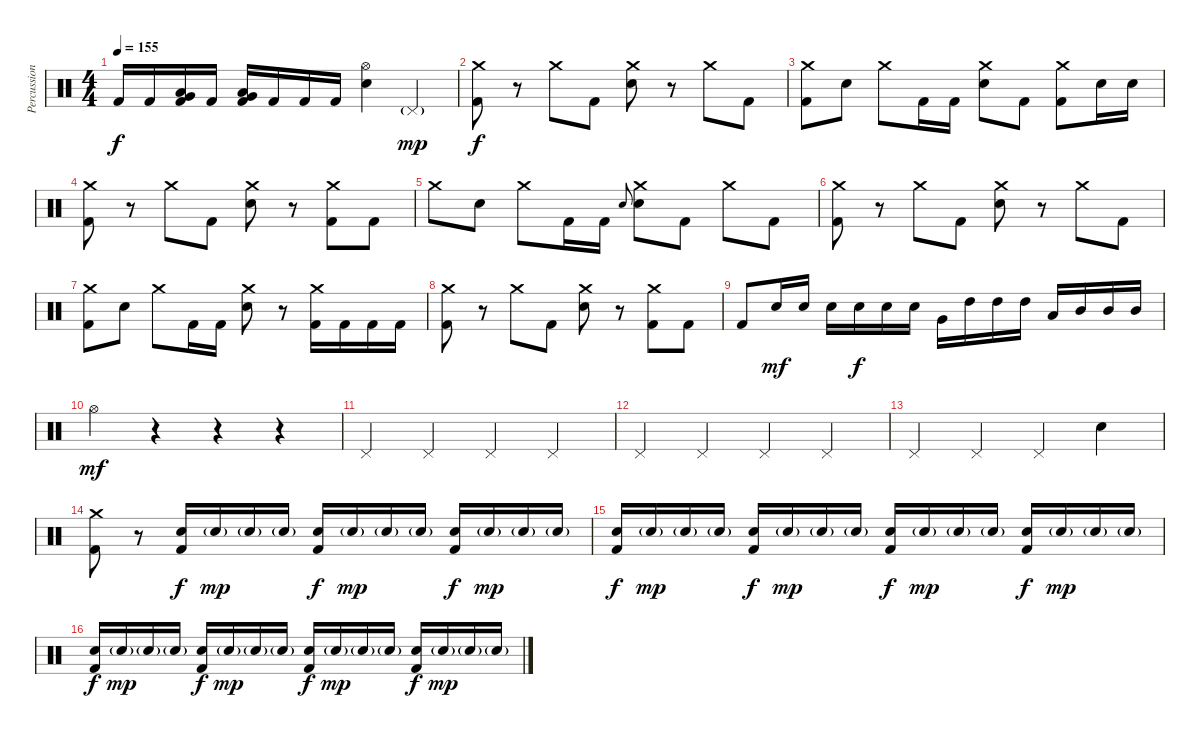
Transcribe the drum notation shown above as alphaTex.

\track ("Percussion" "Percussion") {instrument percussion}
\staff {score}
\articulation defaults
\ts (4 4)
\tempo 155
\clef neutral
\ks c "Kick (hit) 2".16{dy f} "Kick (hit) 2".16
("Very Low Tom (hit)" "Low Tom (hit)" "Kick (hit) 2").16 "Kick (hit) 2".16 ("Very Low Tom (hit)" "Low Tom (hit)" "Kick (hit) 2").16 "Kick (hit) 2".16 "Kick (hit) 2".16 "Kick (hit) 2".16 ("Hi-Hat (open)" "Snare (hit) 2").4 "Pedal Hi-Hat (hit)"{g}.4{dy mp} |
("Crash medium (hit)" "Kick (hit) 2").8{dy f} r.8 "Crash medium (hit)".8 "Kick (hit) 2".8 ("Crash medium (hit)" "Snare (hit) 2").8 r.8 "Crash medium (hit)".8 "Kick (hit) 2".8 |
("Crash medium (hit)" "Kick (hit) 2").8 "Snare (hit) 2".8 "Crash medium (hit)".8 "Kick (hit) 2".16 "Kick (hit) 2".16 ("Crash medium (hit)" "Snare (hit) 2").8 "Kick (hit) 2".8 ("Crash medium (hit)" "Kick (hit) 2").8 "Snare (hit) 2".16 "Snare (hit) 2".16 |
("Crash medium (hit)" "Kick (hit) 2").8 r.8 "Crash medium (hit)".8 "Kick (hit) 2".8 ("Crash medium (hit)" "Snare (hit) 2").8 r.8 ("Crash medium (hit)" "Kick (hit) 2").8 "Kick (hit) 2".8 |
"Crash medium (hit)".8 "Snare (hit) 2".8 "Crash medium (hit)".8 "Kick (hit) 2".16 "Kick (hit) 2".16 "Snare (hit) 2"{h}.8{gr onbeat} ("Crash medium (hit)" "Snare (hit) 2").8 "Kick (hit) 2".8 "Crash medium (hit)".8 "Kick (hit) 2".8 |
("Crash medium (hit)" "Kick (hit) 2").8 r.8 "Crash medium (hit)".8 "Kick (hit) 2".8 ("Crash medium (hit)" "Snare (hit) 2").8 r.8 "Crash medium (hit)".8 "Kick (hit) 2".8 |
("Crash medium (hit)" "Kick (hit) 2").8 "Snare (hit) 2".8 "Crash medium (hit)".8 "Kick (hit) 2".16 "Kick (hit) 2".16 ("Crash medium (hit)" "Snare (hit) 2").8 r.8 ("Crash medium (hit)" "Kick (hit) 2").16 "Kick (hit) 2".16 "Kick (hit) 2".16 "Kick (hit) 2".16 |
("Crash medium (hit)" "Kick (hit) 2").8 r.8 "Crash medium (hit)".8 "Kick (hit) 2".8 ("Crash medium (hit)" "Snare (hit) 2").8 r.8 ("Crash medium (hit)" "Kick (hit) 2").8 "Kick (hit) 2".8 |
"Kick (hit) 2".8 "Snare (hit) 2".16{dy mf} "Snare (hit) 2".16 "Snare (hit) 2".16 "Snare (hit) 2".16{dy f} "Snare (hit) 2".16 "Snare (hit) 2".16 "Very Low Tom (hit)".16 "High Tom (hit)".16 "High Tom (hit)".16 "High Tom (hit)".16 "Low Floor Tom (hit)".16 "Mid Tom (hit)".16 "Mid Tom (hit)".16 "Mid Tom (hit)".16 |
"Hi-Hat (open)".4{dy mf} r.4 r.4 r.4 |
"Pedal Hi-Hat (hit)".4 "Pedal Hi-Hat (hit)".4 "Pedal Hi-Hat (hit)".4 "Pedal Hi-Hat (hit)".4 |
"Pedal Hi-Hat (hit)".4 "Pedal Hi-Hat (hit)".4 "Pedal Hi-Hat (hit)".4 "Pedal Hi-Hat (hit)".4 |
"Pedal Hi-Hat (hit)".4 "Pedal Hi-Hat (hit)".4 "Pedal Hi-Hat (hit)".4 "Snare (hit) 2".4 |
("Crash medium (hit)" "Kick (hit) 2").8 r.8 ("Snare (hit) 2" "Kick (hit) 2").16{dy f} "Snare (hit) 2"{g}.16{dy mp} "Snare (hit) 2"{g}.16 "Snare (hit) 2"{g}.16 ("Snare (hit) 2" "Kick (hit) 2").16{dy f} "Snare (hit) 2"{g}.16{dy mp} "Snare (hit) 2"{g}.16 "Snare (hit) 2"{g}.16 ("Snare (hit) 2" "Kick (hit) 2").16{dy f} "Snare (hit) 2"{g}.16{dy mp} "Snare (hit) 2"{g}.16 "Snare (hit) 2"{g}.16 |
("Snare (hit) 2" "Kick (hit) 2").16{dy f} "Snare (hit) 2"{g}.16{dy mp} "Snare (hit) 2"{g}.16 "Snare (hit) 2"{g}.16 ("Snare (hit) 2" "Kick (hit) 2").16{dy f} "Snare (hit) 2"{g}.16{dy mp} "Snare (hit) 2"{g}.16 "Snare (hit) 2"{g}.16 ("Snare (hit) 2" "Kick (hit) 2").16{dy f} "Snare (hit) 2"{g}.16{dy mp} "Snare (hit) 2"{g}.16 "Snare (hit) 2"{g}.16 ("Snare (hit) 2" "Kick (hit) 2").16{dy f} "Snare (hit) 2"{g}.16{dy mp} "Snare (hit) 2"{g}.16 "Snare (hit) 2"{g}.16 |
("Snare (hit) 2" "Kick (hit) 2").16{dy f} "Snare (hit) 2"{g}.16{dy mp} "Snare (hit) 2"{g}.16 "Snare (hit) 2"{g}.16 ("Snare (hit) 2" "Kick (hit) 2").16{dy f} "Snare (hit) 2"{g}.16{dy mp} "Snare (hit) 2"{g}.16 "Snare (hit) 2"{g}.16 ("Snare (hit) 2" "Kick (hit) 2").16{dy f} "Snare (hit) 2"{g}.16{dy mp} "Snare (hit) 2"{g}.16 "Snare (hit) 2"{g}.16 ("Snare (hit) 2" "Kick (hit) 2").16{dy f} "Snare (hit) 2"{g}.16{dy mp} "Snare (hit) 2"{g}.16 "Snare (hit) 2"{g}.16
